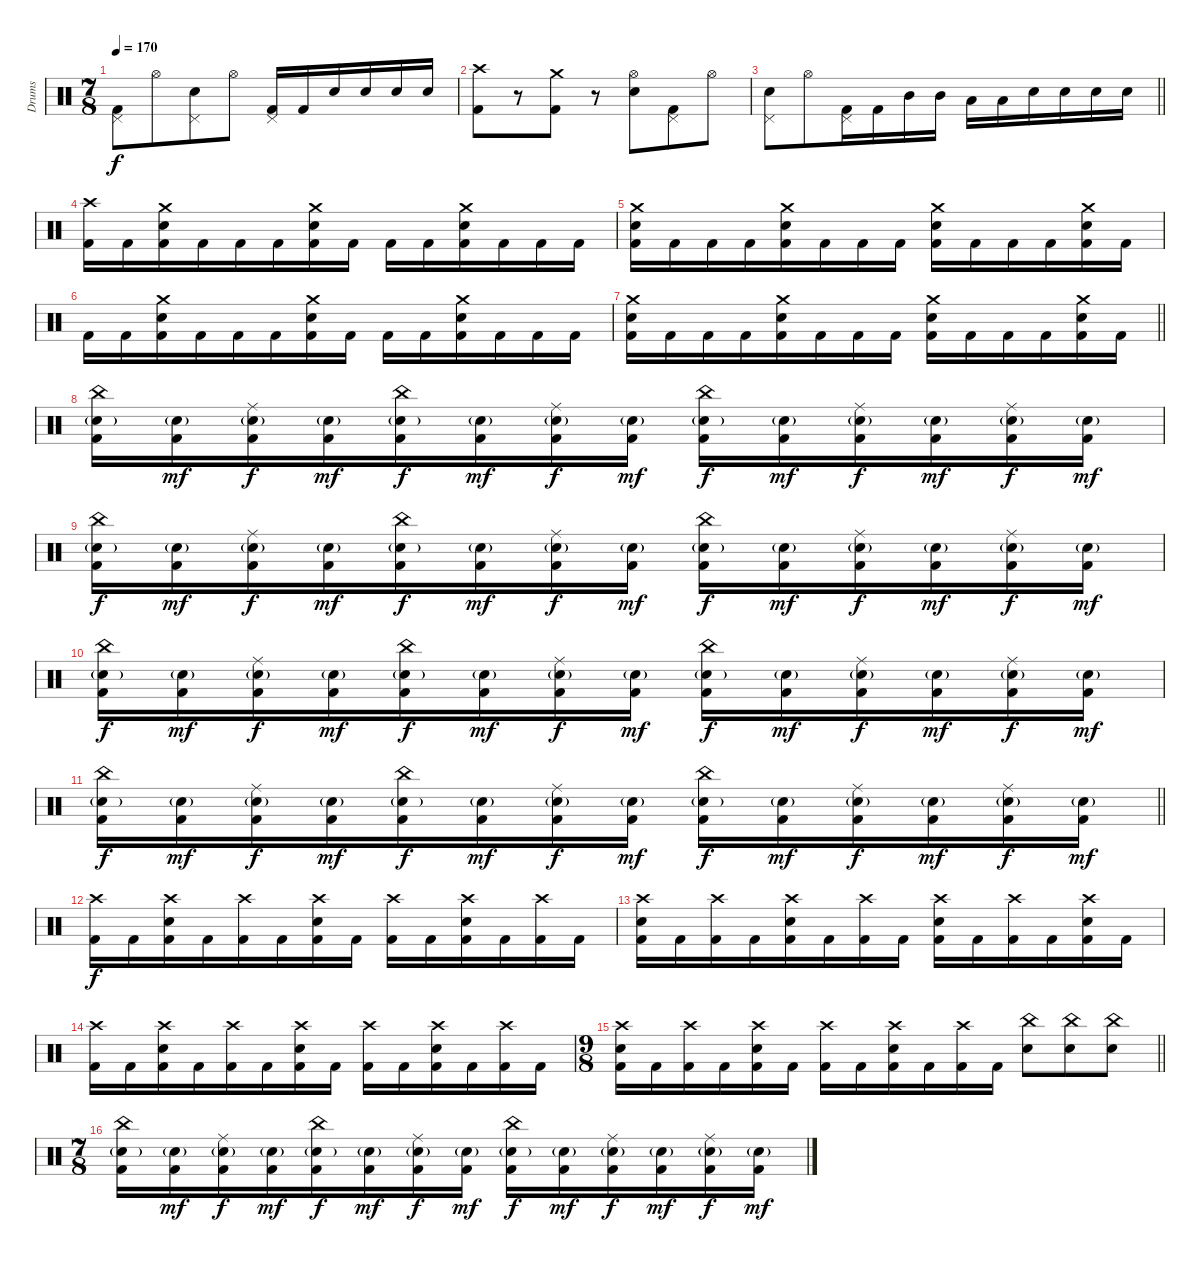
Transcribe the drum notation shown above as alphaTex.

\track ("Drums" "Drums") {instrument percussion}
\staff {score}
\articulation defaults
\ts (7 8)
\tempo 170
\clef neutral
\ks c
("Pedal Hi-Hat (hit)" "Kick (hit) 2").8{dy f} "Hi-Hat (open)".8 ("Pedal Hi-Hat (hit)" "Electric Snare (hit)").8 "Hi-Hat (open)".8 ("Pedal Hi-Hat (hit)" "Kick (hit) 2").16 "Kick (hit) 2".16 "Electric Snare (hit)".16 "Electric Snare (hit)".16 "Electric Snare (hit)".16 "Electric Snare (hit)".16 |
("Crash high (hit)" "Kick (hit) 2").8 r.8 ("Crash medium (hit)" "Kick (hit) 2").8 r.8 ("Hi-Hat (open)" "Electric Snare (hit)").8 ("Pedal Hi-Hat (hit)" "Kick (hit) 2").8 "Hi-Hat (open)".8 |
\barLineRight lightlight
("Pedal Hi-Hat (hit)" "Electric Snare (hit)").8 "Hi-Hat (open)".8 ("Pedal Hi-Hat (hit)" "Kick (hit) 2").16 "Kick (hit) 2".16 "Mid Tom (hit)".16 "Mid Tom (hit)".16 "Low Tom (hit)".16 "Low Tom (hit)".16 "Electric Snare (hit)".16 "Electric Snare (hit)".16 "Electric Snare (hit)".16 "Electric Snare (hit)".16 |
("Crash high (hit)" "Kick (hit) 2").16 "Kick (hit) 2".16 ("Crash medium (hit)" "Electric Snare (hit)" "Kick (hit) 2").16 "Kick (hit) 2".16 "Kick (hit) 2".16 "Kick (hit) 2".16 ("Crash medium (hit)" "Electric Snare (hit)" "Kick (hit) 2").16 "Kick (hit) 2".16 "Kick (hit) 2".16 "Kick (hit) 2".16 ("Crash medium (hit)" "Electric Snare (hit)" "Kick (hit) 2").16 "Kick (hit) 2".16 "Kick (hit) 2".16 "Kick (hit) 2".16 |
("Crash medium (hit)" "Electric Snare (hit)" "Kick (hit) 2").16 "Kick (hit) 2".16 "Kick (hit) 2".16 "Kick (hit) 2".16 ("Crash medium (hit)" "Electric Snare (hit)" "Kick (hit) 2").16 "Kick (hit) 2".16 "Kick (hit) 2".16 "Kick (hit) 2".16 ("Crash medium (hit)" "Electric Snare (hit)" "Kick (hit) 2").16 "Kick (hit) 2".16 "Kick (hit) 2".16 "Kick (hit) 2".16 ("Crash medium (hit)" "Electric Snare (hit)" "Kick (hit) 2").16 "Kick (hit) 2".16 |
"Kick (hit) 2".16 "Kick (hit) 2".16 ("Crash medium (hit)" "Electric Snare (hit)" "Kick (hit) 2").16 "Kick (hit) 2".16 "Kick (hit) 2".16 "Kick (hit) 2".16 ("Crash medium (hit)" "Electric Snare (hit)" "Kick (hit) 2").16 "Kick (hit) 2".16 "Kick (hit) 2".16 "Kick (hit) 2".16 ("Crash medium (hit)" "Electric Snare (hit)" "Kick (hit) 2").16 "Kick (hit) 2".16 "Kick (hit) 2".16 "Kick (hit) 2".16 |
\barLineRight lightlight
("Crash medium (hit)" "Electric Snare (hit)" "Kick (hit) 2").16 "Kick (hit) 2".16 "Kick (hit) 2".16 "Kick (hit) 2".16 ("Crash medium (hit)" "Electric Snare (hit)" "Kick (hit) 2").16 "Kick (hit) 2".16 "Kick (hit) 2".16 "Kick (hit) 2".16 ("Crash medium (hit)" "Electric Snare (hit)" "Kick (hit) 2").16 "Kick (hit) 2".16 "Kick (hit) 2".16 "Kick (hit) 2".16 ("Crash medium (hit)" "Electric Snare (hit)" "Kick (hit) 2").16 "Kick (hit) 2".16 |
("China (hit)" "Electric Snare (hit)"{g} "Kick (hit) 2").16 ("Electric Snare (hit)"{g} "Kick (hit) 2").16{dy mf} ("Ride (middle)" "Electric Snare (hit)"{g} "Kick (hit) 2").16{dy f} ("Electric Snare (hit)"{g} "Kick (hit) 2").16{dy mf} ("China (hit)" "Electric Snare (hit)"{g} "Kick (hit) 2").16{dy f} ("Electric Snare (hit)"{g} "Kick (hit) 2").16{dy mf} ("Ride (middle)" "Electric Snare (hit)"{g} "Kick (hit) 2").16{dy f} ("Electric Snare (hit)"{g} "Kick (hit) 2").16{dy mf} ("China (hit)" "Electric Snare (hit)"{g} "Kick (hit) 2").16{dy f} ("Electric Snare (hit)"{g} "Kick (hit) 2").16{dy mf} ("Ride (middle)" "Electric Snare (hit)"{g} "Kick (hit) 2").16{dy f} ("Electric Snare (hit)"{g} "Kick (hit) 2").16{dy mf} ("Ride (middle)" "Electric Snare (hit)"{g} "Kick (hit) 2").16{dy f} ("Electric Snare (hit)"{g} "Kick (hit) 2").16{dy mf} |
("China (hit)" "Electric Snare (hit)"{g} "Kick (hit) 2").16{dy f} ("Electric Snare (hit)"{g} "Kick (hit) 2").16{dy mf} ("Ride (middle)" "Electric Snare (hit)"{g} "Kick (hit) 2").16{dy f} ("Electric Snare (hit)"{g} "Kick (hit) 2").16{dy mf} ("China (hit)" "Electric Snare (hit)"{g} "Kick (hit) 2").16{dy f} ("Electric Snare (hit)"{g} "Kick (hit) 2").16{dy mf} ("Ride (middle)" "Electric Snare (hit)"{g} "Kick (hit) 2").16{dy f} ("Electric Snare (hit)"{g} "Kick (hit) 2").16{dy mf} ("China (hit)" "Electric Snare (hit)"{g} "Kick (hit) 2").16{dy f} ("Electric Snare (hit)"{g} "Kick (hit) 2").16{dy mf} ("Ride (middle)" "Electric Snare (hit)"{g} "Kick (hit) 2").16{dy f} ("Electric Snare (hit)"{g} "Kick (hit) 2").16{dy mf} ("Ride (middle)" "Electric Snare (hit)"{g} "Kick (hit) 2").16{dy f} ("Electric Snare (hit)"{g} "Kick (hit) 2").16{dy mf} |
("China (hit)" "Electric Snare (hit)"{g} "Kick (hit) 2").16{dy f} ("Electric Snare (hit)"{g} "Kick (hit) 2").16{dy mf} ("Ride (middle)" "Electric Snare (hit)"{g} "Kick (hit) 2").16{dy f} ("Electric Snare (hit)"{g} "Kick (hit) 2").16{dy mf} ("China (hit)" "Electric Snare (hit)"{g} "Kick (hit) 2").16{dy f} ("Electric Snare (hit)"{g} "Kick (hit) 2").16{dy mf} ("Ride (middle)" "Electric Snare (hit)"{g} "Kick (hit) 2").16{dy f} ("Electric Snare (hit)"{g} "Kick (hit) 2").16{dy mf} ("China (hit)" "Electric Snare (hit)"{g} "Kick (hit) 2").16{dy f} ("Electric Snare (hit)"{g} "Kick (hit) 2").16{dy mf} ("Ride (middle)" "Electric Snare (hit)"{g} "Kick (hit) 2").16{dy f} ("Electric Snare (hit)"{g} "Kick (hit) 2").16{dy mf} ("Ride (middle)" "Electric Snare (hit)"{g} "Kick (hit) 2").16{dy f} ("Electric Snare (hit)"{g} "Kick (hit) 2").16{dy mf} |
\barLineRight lightlight
("China (hit)" "Electric Snare (hit)"{g} "Kick (hit) 2").16{dy f} ("Electric Snare (hit)"{g} "Kick (hit) 2").16{dy mf} ("Ride (middle)" "Electric Snare (hit)"{g} "Kick (hit) 2").16{dy f} ("Electric Snare (hit)"{g} "Kick (hit) 2").16{dy mf} ("China (hit)" "Electric Snare (hit)"{g} "Kick (hit) 2").16{dy f} ("Electric Snare (hit)"{g} "Kick (hit) 2").16{dy mf} ("Ride (middle)" "Electric Snare (hit)"{g} "Kick (hit) 2").16{dy f} ("Electric Snare (hit)"{g} "Kick (hit) 2").16{dy mf} ("China (hit)" "Electric Snare (hit)"{g} "Kick (hit) 2").16{dy f} ("Electric Snare (hit)"{g} "Kick (hit) 2").16{dy mf} ("Ride (middle)" "Electric Snare (hit)"{g} "Kick (hit) 2").16{dy f} ("Electric Snare (hit)"{g} "Kick (hit) 2").16{dy mf} ("Ride (middle)" "Electric Snare (hit)"{g} "Kick (hit) 2").16{dy f} ("Electric Snare (hit)"{g} "Kick (hit) 2").16{dy mf} |
\section ("" "")
("Crash high (hit)" "Kick (hit) 2").16{dy f} "Kick (hit) 2".16 ("Crash high (hit)" "Electric Snare (hit)" "Kick (hit) 2").16 "Kick (hit) 2".16 ("Crash high (hit)" "Kick (hit) 2").16 "Kick (hit) 2".16 ("Crash high (hit)" "Electric Snare (hit)" "Kick (hit) 2").16 "Kick (hit) 2".16 ("Crash high (hit)" "Kick (hit) 2").16 "Kick (hit) 2".16 ("Crash high (hit)" "Electric Snare (hit)" "Kick (hit) 2").16 "Kick (hit) 2".16 ("Crash high (hit)" "Kick (hit) 2").16 "Kick (hit) 2".16 |
("Crash high (hit)" "Electric Snare (hit)" "Kick (hit) 2").16 "Kick (hit) 2".16 ("Crash high (hit)" "Kick (hit) 2").16 "Kick (hit) 2".16 ("Crash high (hit)" "Electric Snare (hit)" "Kick (hit) 2").16 "Kick (hit) 2".16 ("Crash high (hit)" "Kick (hit) 2").16 "Kick (hit) 2".16 ("Crash high (hit)" "Electric Snare (hit)" "Kick (hit) 2").16 "Kick (hit) 2".16 ("Crash high (hit)" "Kick (hit) 2").16 "Kick (hit) 2".16 ("Crash high (hit)" "Electric Snare (hit)" "Kick (hit) 2").16 "Kick (hit) 2".16 |
("Crash high (hit)" "Kick (hit) 2").16 "Kick (hit) 2".16 ("Crash high (hit)" "Electric Snare (hit)" "Kick (hit) 2").16 "Kick (hit) 2".16 ("Crash high (hit)" "Kick (hit) 2").16 "Kick (hit) 2".16 ("Crash high (hit)" "Electric Snare (hit)" "Kick (hit) 2").16 "Kick (hit) 2".16 ("Crash high (hit)" "Kick (hit) 2").16 "Kick (hit) 2".16 ("Crash high (hit)" "Electric Snare (hit)" "Kick (hit) 2").16 "Kick (hit) 2".16 ("Crash high (hit)" "Kick (hit) 2").16 "Kick (hit) 2".16 |
\ts (9 8)
\barLineRight lightlight
("Crash high (hit)" "Electric Snare (hit)" "Kick (hit) 2").16 "Kick (hit) 2".16 ("Crash high (hit)" "Kick (hit) 2").16 "Kick (hit) 2".16 ("Crash high (hit)" "Electric Snare (hit)" "Kick (hit) 2").16 "Kick (hit) 2".16 ("Crash high (hit)" "Kick (hit) 2").16 "Kick (hit) 2".16 ("Crash high (hit)" "Electric Snare (hit)" "Kick (hit) 2").16 "Kick (hit) 2".16 ("Crash high (hit)" "Kick (hit) 2").16 "Kick (hit) 2".16 ("China (hit)" "Electric Snare (hit)").8 ("China (hit)" "Electric Snare (hit)").8 ("China (hit)" "Electric Snare (hit)").8 |
\ts (7 8)
("China (hit)" "Electric Snare (hit)"{g} "Kick (hit) 2").16 ("Electric Snare (hit)"{g} "Kick (hit) 2").16{dy mf} ("Ride (middle)" "Electric Snare (hit)"{g} "Kick (hit) 2").16{dy f} ("Electric Snare (hit)"{g} "Kick (hit) 2").16{dy mf} ("China (hit)" "Electric Snare (hit)"{g} "Kick (hit) 2").16{dy f} ("Electric Snare (hit)"{g} "Kick (hit) 2").16{dy mf} ("Ride (middle)" "Electric Snare (hit)"{g} "Kick (hit) 2").16{dy f} ("Electric Snare (hit)"{g} "Kick (hit) 2").16{dy mf} ("China (hit)" "Electric Snare (hit)"{g} "Kick (hit) 2").16{dy f} ("Electric Snare (hit)"{g} "Kick (hit) 2").16{dy mf} ("Ride (middle)" "Electric Snare (hit)"{g} "Kick (hit) 2").16{dy f} ("Electric Snare (hit)"{g} "Kick (hit) 2").16{dy mf} ("Ride (middle)" "Electric Snare (hit)"{g} "Kick (hit) 2").16{dy f} ("Electric Snare (hit)"{g} "Kick (hit) 2").16{dy mf}
